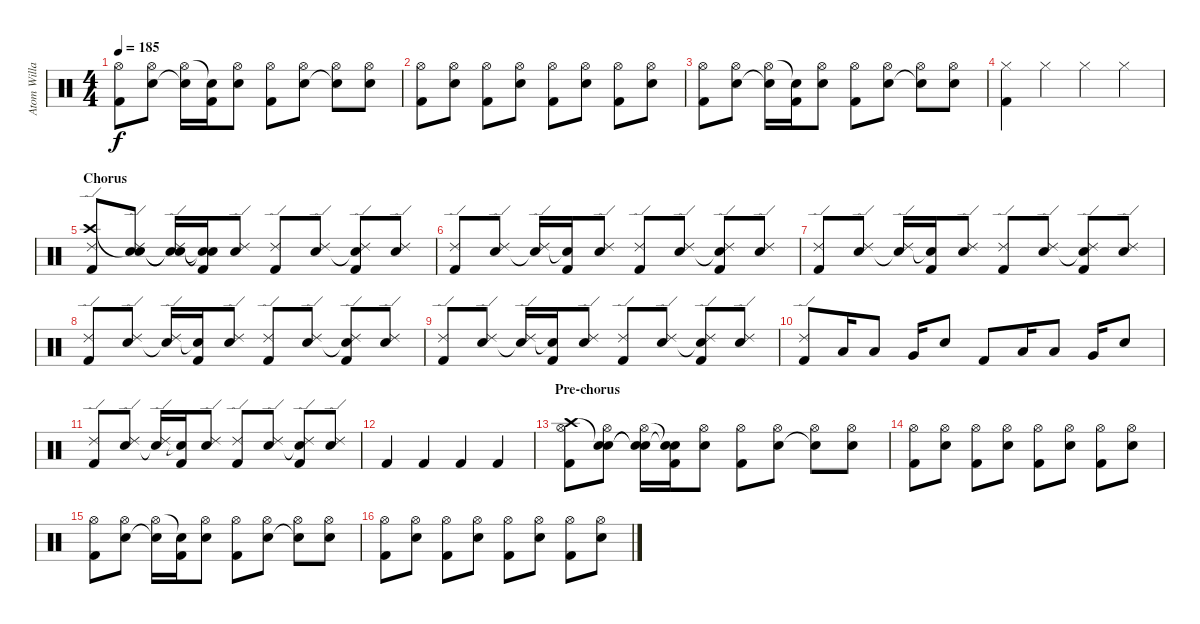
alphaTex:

\track ("Atom Willard (Drums)" "Atom Willa") {instrument percussion}
\staff {score}
\articulation defaults
\ts (4 4)
\tempo 185
\clef neutral
\ks c
("Hi-Hat (open)" "Kick (hit) 2").8{dy f} ("Hi-Hat (open)" "Snare (hit) 2").8 ("Hi-Hat (open)" "Snare (hit)"{t}).16 ("Snare (hit)"{t} "Kick (hit) 2").16 ("Hi-Hat (open)" "Snare (hit) 2").8 ("Hi-Hat (open)" "Kick (hit) 2").8 ("Hi-Hat (open)" "Snare (hit) 2").8 ("Hi-Hat (open)" "Snare (hit)"{t}).8 ("Hi-Hat (open)" "Snare (hit) 2").8 |
("Hi-Hat (open)" "Kick (hit) 2").8 ("Hi-Hat (open)" "Snare (hit) 2").8 ("Hi-Hat (open)" "Kick (hit) 2").8 ("Hi-Hat (open)" "Snare (hit) 2").8 ("Hi-Hat (open)" "Kick (hit) 2").8 ("Hi-Hat (open)" "Snare (hit) 2").8 ("Hi-Hat (open)" "Kick (hit) 2").8 ("Hi-Hat (open)" "Snare (hit) 2").8 |
("Hi-Hat (open)" "Kick (hit) 2").8 ("Hi-Hat (open)" "Snare (hit) 2").8 ("Hi-Hat (open)" "Snare (hit)"{t}).16 ("Snare (hit)"{t} "Kick (hit) 2").16 ("Hi-Hat (open)" "Snare (hit) 2").8 ("Hi-Hat (open)" "Kick (hit) 2").8 ("Hi-Hat (open)" "Snare (hit) 2").8 ("Hi-Hat (open)" "Snare (hit)"{t}).8 ("Hi-Hat (open)" "Snare (hit) 2").8 |
("Hi-Hat (closed)" "Kick (hit) 2").4 "Hi-Hat (closed)".4 "Hi-Hat (closed)".4 "Hi-Hat (closed)".4 |
\section ("" "Chorus")
("Crash high (hit)" "Ride (edge) 2" "Kick (hit) 2").8 ("Snare (hit)"{t} "Ride (edge) 2" "Snare (hit) 2").8 ("Snare (hit)"{t} "Ride (edge) 2" "Snare (hit)"{t}).16 ("Snare (hit)"{t} "Snare (hit)"{t} "Kick (hit) 2").16 ("Ride (edge) 2" "Snare (hit) 2").8 ("Ride (edge) 2" "Kick (hit) 2").8 ("Ride (edge) 2" "Snare (hit) 2").8 ("Ride (edge) 2" "Snare (hit)"{t} "Kick (hit) 2").8 ("Ride (edge) 2" "Snare (hit) 2").8 |
("Ride (edge) 2" "Kick (hit) 2").8 ("Ride (edge) 2" "Snare (hit) 2").8 ("Ride (edge) 2" "Snare (hit)"{t}).16 ("Snare (hit)"{t} "Kick (hit) 2").16 ("Ride (edge) 2" "Snare (hit) 2").8 ("Ride (edge) 2" "Kick (hit) 2").8 ("Ride (edge) 2" "Snare (hit) 2").8 ("Ride (edge) 2" "Snare (hit)"{t} "Kick (hit) 2").8 ("Ride (edge) 2" "Snare (hit) 2").8 |
("Ride (edge) 2" "Kick (hit) 2").8 ("Ride (edge) 2" "Snare (hit) 2").8 ("Ride (edge) 2" "Snare (hit)"{t}).16 ("Snare (hit)"{t} "Kick (hit) 2").16 ("Ride (edge) 2" "Snare (hit) 2").8 ("Ride (edge) 2" "Kick (hit) 2").8 ("Ride (edge) 2" "Snare (hit) 2").8 ("Ride (edge) 2" "Snare (hit)"{t} "Kick (hit) 2").8 ("Ride (edge) 2" "Snare (hit) 2").8 |
("Ride (edge) 2" "Kick (hit) 2").8 ("Ride (edge) 2" "Snare (hit) 2").8 ("Ride (edge) 2" "Snare (hit)"{t}).16 ("Snare (hit)"{t} "Kick (hit) 2").16 ("Ride (edge) 2" "Snare (hit) 2").8 ("Ride (edge) 2" "Kick (hit) 2").8 ("Ride (edge) 2" "Snare (hit) 2").8 ("Ride (edge) 2" "Snare (hit)"{t} "Kick (hit) 2").8 ("Ride (edge) 2" "Snare (hit) 2").8 |
("Ride (edge) 2" "Kick (hit) 2").8 ("Ride (edge) 2" "Snare (hit) 2").8 ("Ride (edge) 2" "Snare (hit)"{t}).16 ("Snare (hit)"{t} "Kick (hit) 2").16 ("Ride (edge) 2" "Snare (hit) 2").8 ("Ride (edge) 2" "Kick (hit) 2").8 ("Ride (edge) 2" "Snare (hit) 2").8 ("Ride (edge) 2" "Snare (hit)"{t} "Kick (hit) 2").8 ("Ride (edge) 2" "Snare (hit) 2").8 |
("Ride (edge) 2" "Kick (hit) 2").8 "Low Tom (hit)".16 "Low Tom (hit)".8 "Very Low Tom (hit)".16 "Electric Snare (hit)".8 "Kick (hit) 2".8 "Low Tom (hit)".16 "Low Tom (hit)".8 "Very Low Tom (hit)".16 "Electric Snare (hit)".8 |
("Ride (edge) 2" "Kick (hit) 2").8 ("Ride (edge) 2" "Snare (hit) 2").8 ("Ride (edge) 2" "Snare (hit)"{t}).16 ("Snare (hit)"{t} "Kick (hit) 2").16 ("Ride (edge) 2" "Snare (hit) 2").8 ("Ride (edge) 2" "Kick (hit) 2").8 ("Ride (edge) 2" "Snare (hit) 2").8 ("Ride (edge) 2" "Snare (hit)"{t} "Kick (hit) 2").8 ("Ride (edge) 2" "Snare (hit) 2").8 |
"Kick (hit) 2".4 "Kick (hit) 2".4 "Kick (hit) 2".4 "Kick (hit) 2".4 |
\section ("" "Pre-chorus")
("Crash high (hit)" "Hi-Hat (open)" "Kick (hit) 2").8 ("Snare (hit)"{t} "Hi-Hat (open)" "Snare (hit) 2").8 ("Snare (hit)"{t} "Hi-Hat (open)" "Snare (hit)"{t}).16 ("Snare (hit)"{t} "Snare (hit)"{t} "Kick (hit) 2").16 ("Hi-Hat (open)" "Snare (hit) 2").8 ("Hi-Hat (open)" "Kick (hit) 2").8 ("Hi-Hat (open)" "Snare (hit) 2").8 ("Hi-Hat (open)" "Snare (hit)"{t}).8 ("Hi-Hat (open)" "Snare (hit) 2").8 |
("Hi-Hat (open)" "Kick (hit) 2").8 ("Hi-Hat (open)" "Snare (hit) 2").8 ("Hi-Hat (open)" "Kick (hit) 2").8 ("Hi-Hat (open)" "Snare (hit) 2").8 ("Hi-Hat (open)" "Kick (hit) 2").8 ("Hi-Hat (open)" "Snare (hit) 2").8 ("Hi-Hat (open)" "Kick (hit) 2").8 ("Hi-Hat (open)" "Snare (hit) 2").8 |
("Hi-Hat (open)" "Kick (hit) 2").8 ("Hi-Hat (open)" "Snare (hit) 2").8 ("Hi-Hat (open)" "Snare (hit)"{t}).16 ("Snare (hit)"{t} "Kick (hit) 2").16 ("Hi-Hat (open)" "Snare (hit) 2").8 ("Hi-Hat (open)" "Kick (hit) 2").8 ("Hi-Hat (open)" "Snare (hit) 2").8 ("Hi-Hat (open)" "Snare (hit)"{t}).8 ("Hi-Hat (open)" "Snare (hit) 2").8 |
("Hi-Hat (open)" "Kick (hit) 2").8 ("Hi-Hat (open)" "Snare (hit) 2").8 ("Hi-Hat (open)" "Kick (hit) 2").8 ("Hi-Hat (open)" "Snare (hit) 2").8 ("Hi-Hat (open)" "Kick (hit) 2").8 ("Hi-Hat (open)" "Snare (hit) 2").8 ("Hi-Hat (open)" "Kick (hit) 2").8 ("Hi-Hat (open)" "Snare (hit) 2").8
